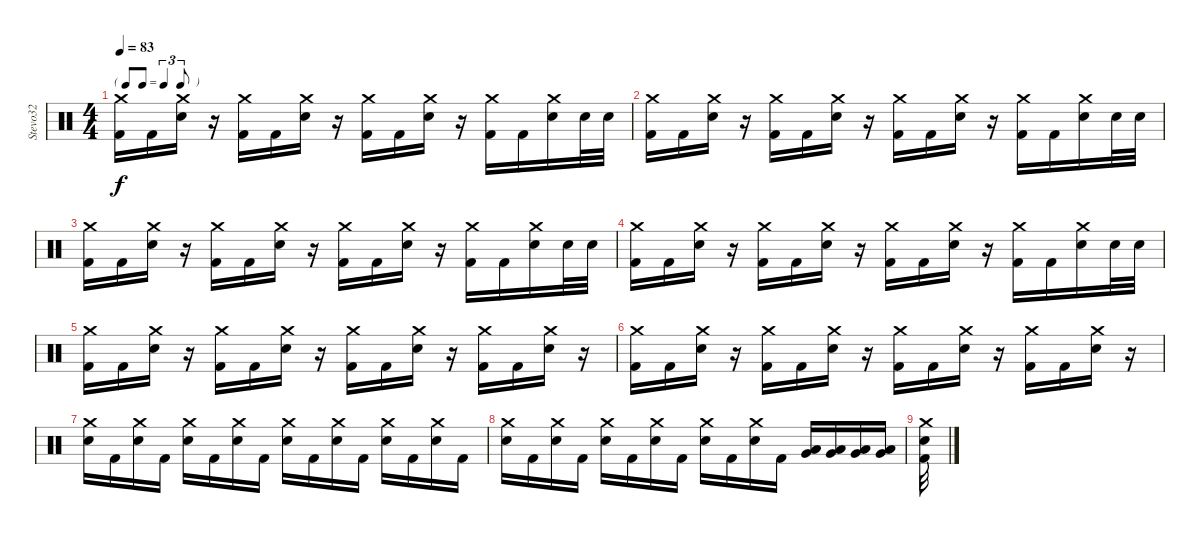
\track ("Stevo32" "Stevo32") {instrument percussion}
\staff {score}
\articulation defaults
\ts (4 4)
\tf triplet8th
\tempo 83
\clef neutral
\ks c
("Crash medium (hit)" "Kick (hit) 2").16{dy f} "Kick (hit) 2".16 ("Crash medium (hit)" "Electric Snare (hit)").16 r.16 ("Crash medium (hit)" "Kick (hit) 2").16 "Kick (hit) 2".16 ("Crash medium (hit)" "Electric Snare (hit)").16 r.16 ("Crash medium (hit)" "Kick (hit) 2").16 "Kick (hit) 2".16 ("Crash medium (hit)" "Electric Snare (hit)").16 r.16 ("Crash medium (hit)" "Kick (hit) 2").16 "Kick (hit) 2".16 ("Crash medium (hit)" "Electric Snare (hit)").16 "Electric Snare (hit)".32 "Electric Snare (hit)".32 |
("Crash medium (hit)" "Kick (hit) 2").16 "Kick (hit) 2".16 ("Crash medium (hit)" "Electric Snare (hit)").16 r.16 ("Crash medium (hit)" "Kick (hit) 2").16 "Kick (hit) 2".16 ("Crash medium (hit)" "Electric Snare (hit)").16 r.16 ("Crash medium (hit)" "Kick (hit) 2").16 "Kick (hit) 2".16 ("Crash medium (hit)" "Electric Snare (hit)").16 r.16 ("Crash medium (hit)" "Kick (hit) 2").16 "Kick (hit) 2".16 ("Crash medium (hit)" "Electric Snare (hit)").16 "Electric Snare (hit)".32 "Electric Snare (hit)".32 |
("Crash medium (hit)" "Kick (hit) 2").16 "Kick (hit) 2".16 ("Crash medium (hit)" "Electric Snare (hit)").16 r.16 ("Crash medium (hit)" "Kick (hit) 2").16 "Kick (hit) 2".16 ("Crash medium (hit)" "Electric Snare (hit)").16 r.16 ("Crash medium (hit)" "Kick (hit) 2").16 "Kick (hit) 2".16 ("Crash medium (hit)" "Electric Snare (hit)").16 r.16 ("Crash medium (hit)" "Kick (hit) 2").16 "Kick (hit) 2".16 ("Crash medium (hit)" "Electric Snare (hit)").16 "Electric Snare (hit)".32 "Electric Snare (hit)".32 |
("Crash medium (hit)" "Kick (hit) 2").16 "Kick (hit) 2".16 ("Crash medium (hit)" "Electric Snare (hit)").16 r.16 ("Crash medium (hit)" "Kick (hit) 2").16 "Kick (hit) 2".16 ("Crash medium (hit)" "Electric Snare (hit)").16 r.16 ("Crash medium (hit)" "Kick (hit) 2").16 "Kick (hit) 2".16 ("Crash medium (hit)" "Electric Snare (hit)").16 r.16 ("Crash medium (hit)" "Kick (hit) 2").16 "Kick (hit) 2".16 ("Crash medium (hit)" "Electric Snare (hit)").16 "Electric Snare (hit)".32 "Electric Snare (hit)".32 |
("Crash medium (hit)" "Kick (hit) 2").16 "Kick (hit) 2".16 ("Crash medium (hit)" "Electric Snare (hit)").16 r.16 ("Crash medium (hit)" "Kick (hit) 2").16 "Kick (hit) 2".16 ("Crash medium (hit)" "Electric Snare (hit)").16 r.16 ("Crash medium (hit)" "Kick (hit) 2").16 "Kick (hit) 2".16 ("Crash medium (hit)" "Electric Snare (hit)").16 r.16 ("Crash medium (hit)" "Kick (hit) 2").16 "Kick (hit) 2".16 ("Crash medium (hit)" "Electric Snare (hit)").16 r.16 |
("Crash medium (hit)" "Kick (hit) 2").16 "Kick (hit) 2".16 ("Crash medium (hit)" "Electric Snare (hit)").16 r.16 ("Crash medium (hit)" "Kick (hit) 2").16 "Kick (hit) 2".16 ("Crash medium (hit)" "Electric Snare (hit)").16 r.16 ("Crash medium (hit)" "Kick (hit) 2").16 "Kick (hit) 2".16 ("Crash medium (hit)" "Electric Snare (hit)").16 r.16 ("Crash medium (hit)" "Kick (hit) 2").16 "Kick (hit) 2".16 ("Crash medium (hit)" "Electric Snare (hit)").16 r.16 |
("Crash medium (hit)" "Electric Snare (hit)").16 "Kick (hit) 2".16 ("Crash medium (hit)" "Electric Snare (hit)").16 "Kick (hit) 2".16 ("Crash medium (hit)" "Electric Snare (hit)").16 "Kick (hit) 2".16 ("Crash medium (hit)" "Electric Snare (hit)").16 "Kick (hit) 2".16 ("Crash medium (hit)" "Electric Snare (hit)").16 "Kick (hit) 2".16 ("Crash medium (hit)" "Electric Snare (hit)").16 "Kick (hit) 2".16 ("Crash medium (hit)" "Electric Snare (hit)").16 "Kick (hit) 2".16 ("Crash medium (hit)" "Electric Snare (hit)").16 "Kick (hit) 2".16 |
("Crash medium (hit)" "Electric Snare (hit)").16 "Kick (hit) 2".16 ("Crash medium (hit)" "Electric Snare (hit)").16 "Kick (hit) 2".16 ("Crash medium (hit)" "Electric Snare (hit)").16 "Kick (hit) 2".16 ("Crash medium (hit)" "Electric Snare (hit)").16 "Kick (hit) 2".16 ("Crash medium (hit)" "Electric Snare (hit)").16 "Kick (hit) 2".16 ("Crash medium (hit)" "Electric Snare (hit)").16 "Kick (hit) 2".16 ("Low Tom (hit)" "Very Low Tom (hit)").16 ("Low Tom (hit)" "Very Low Tom (hit)").16 ("Low Tom (hit)" "Very Low Tom (hit)").16 ("Low Tom (hit)" "Very Low Tom (hit)").16 |
("Kick (hit) 2" "Crash medium (hit)" "Electric Snare (hit)").32
